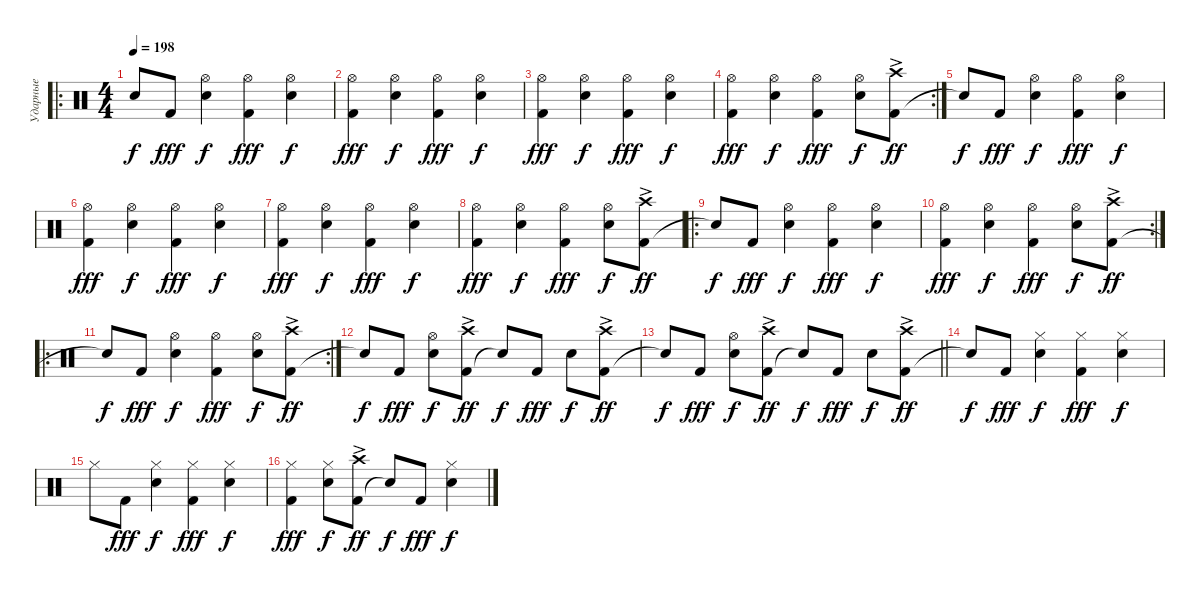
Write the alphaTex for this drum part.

\track ("Ударные" "Ударные") {instrument percussion}
\staff {score}
\articulation defaults
\ro
\ts (4 4)
\tempo 198
\clef neutral
\ks c "Snare (hit)"{t}.8{dy f} "Kick (hit) 2".8{dy fff}
("Snare (hit) 2" "Hi-Hat (open)").4{dy f} ("Kick (hit) 2" "Hi-Hat (open)").4{dy fff} ("Snare (hit) 2" "Hi-Hat (open)").4{dy f} |
("Kick (hit) 2" "Hi-Hat (open)").4{dy fff} ("Snare (hit) 2" "Hi-Hat (open)").4{dy f} ("Kick (hit) 2" "Hi-Hat (open)").4{dy fff} ("Snare (hit) 2" "Hi-Hat (open)").4{dy f} |
("Kick (hit) 2" "Hi-Hat (open)").4{dy fff} ("Snare (hit) 2" "Hi-Hat (open)").4{dy f} ("Kick (hit) 2" "Hi-Hat (open)").4{dy fff} ("Snare (hit) 2" "Hi-Hat (open)").4{dy f} |
\rc 2
("Kick (hit) 2" "Hi-Hat (open)").4{dy fff} ("Snare (hit) 2" "Hi-Hat (open)").4{dy f} ("Kick (hit) 2" "Hi-Hat (open)").4{dy fff} ("Snare (hit) 2" "Hi-Hat (open)").8{dy f} ("Kick (hit) 2" "Crash high (hit)"{ac}).8{dy ff} |
"Snare (hit)"{t}.8{dy f} "Kick (hit) 2".8{dy fff} ("Snare (hit) 2" "Hi-Hat (open)").4{dy f} ("Kick (hit) 2" "Hi-Hat (open)").4{dy fff} ("Snare (hit) 2" "Hi-Hat (open)").4{dy f} |
("Kick (hit) 2" "Hi-Hat (open)").4{dy fff} ("Snare (hit) 2" "Hi-Hat (open)").4{dy f} ("Kick (hit) 2" "Hi-Hat (open)").4{dy fff} ("Snare (hit) 2" "Hi-Hat (open)").4{dy f} |
("Kick (hit) 2" "Hi-Hat (open)").4{dy fff} ("Snare (hit) 2" "Hi-Hat (open)").4{dy f} ("Kick (hit) 2" "Hi-Hat (open)").4{dy fff} ("Snare (hit) 2" "Hi-Hat (open)").4{dy f} |
("Kick (hit) 2" "Hi-Hat (open)").4{dy fff} ("Snare (hit) 2" "Hi-Hat (open)").4{dy f} ("Kick (hit) 2" "Hi-Hat (open)").4{dy fff} ("Snare (hit) 2" "Hi-Hat (open)").8{dy f} ("Kick (hit) 2" "Crash high (hit)"{ac}).8{dy ff} |
\ro "Snare (hit)"{t}.8{dy f} "Kick (hit) 2".8{dy fff}
("Snare (hit) 2" "Hi-Hat (open)").4{dy f} ("Kick (hit) 2" "Hi-Hat (open)").4{dy fff} ("Snare (hit) 2" "Hi-Hat (open)").4{dy f} |
\rc 2
("Kick (hit) 2" "Hi-Hat (open)").4{dy fff} ("Snare (hit) 2" "Hi-Hat (open)").4{dy f} ("Kick (hit) 2" "Hi-Hat (open)").4{dy fff} ("Snare (hit) 2" "Hi-Hat (open)").8{dy f} ("Kick (hit) 2" "Crash high (hit)"{ac}).8{dy ff} |
\ro
\rc 2 "Snare (hit)"{t}.8{dy f} "Kick (hit) 2".8{dy fff}
("Snare (hit) 2" "Hi-Hat (open)").4{dy f} ("Kick (hit) 2" "Hi-Hat (open)").4{dy fff} ("Snare (hit) 2" "Hi-Hat (open)").8{dy f} ("Kick (hit) 2" "Crash high (hit)"{ac}).8{dy ff} |
"Snare (hit)"{t}.8{dy f} "Kick (hit) 2".8{dy fff} ("Snare (hit) 2" "Hi-Hat (open)").8{dy f} ("Kick (hit) 2" "Crash high (hit)"{ac}).8{dy ff} "Snare (hit)"{t}.8{dy f} "Kick (hit) 2".8{dy fff} "Snare (hit) 2".8{dy f} ("Kick (hit) 2" "Crash high (hit)"{ac}).8{dy ff} |
\barLineRight lightlight "Snare (hit)"{t}.8{dy f} "Kick (hit) 2".8{dy fff}
("Snare (hit) 2" "Hi-Hat (open)").8{dy f} ("Kick (hit) 2" "Crash high (hit)"{ac}).8{dy ff} "Snare (hit)"{t}.8{dy f} "Kick (hit) 2".8{dy fff} "Snare (hit) 2".8{dy f} ("Kick (hit) 2" "Crash high (hit)"{ac}).8{dy ff} |
"Snare (hit)"{t}.8{dy f} "Kick (hit) 2".8{dy fff} ("Snare (hit) 2" "Hi-Hat (closed)").4{dy f} ("Kick (hit) 2" "Hi-Hat (closed)").4{dy fff} ("Snare (hit) 2" "Hi-Hat (closed)").4{dy f} |
"Hi-Hat (closed)".8 "Kick (hit) 2".8{dy fff} ("Snare (hit) 2" "Hi-Hat (closed)").4{dy f} ("Kick (hit) 2" "Hi-Hat (closed)").4{dy fff} ("Snare (hit) 2" "Hi-Hat (closed)").4{dy f} |
("Kick (hit) 2" "Hi-Hat (closed)").4{dy fff} ("Snare (hit) 2" "Hi-Hat (closed)").8{dy f} ("Kick (hit) 2" "Crash high (hit)"{ac}).8{dy ff} "Snare (hit)"{t}.8{dy f} "Kick (hit) 2".8{dy fff} ("Snare (hit) 2" "Hi-Hat (closed)").4{dy f}
